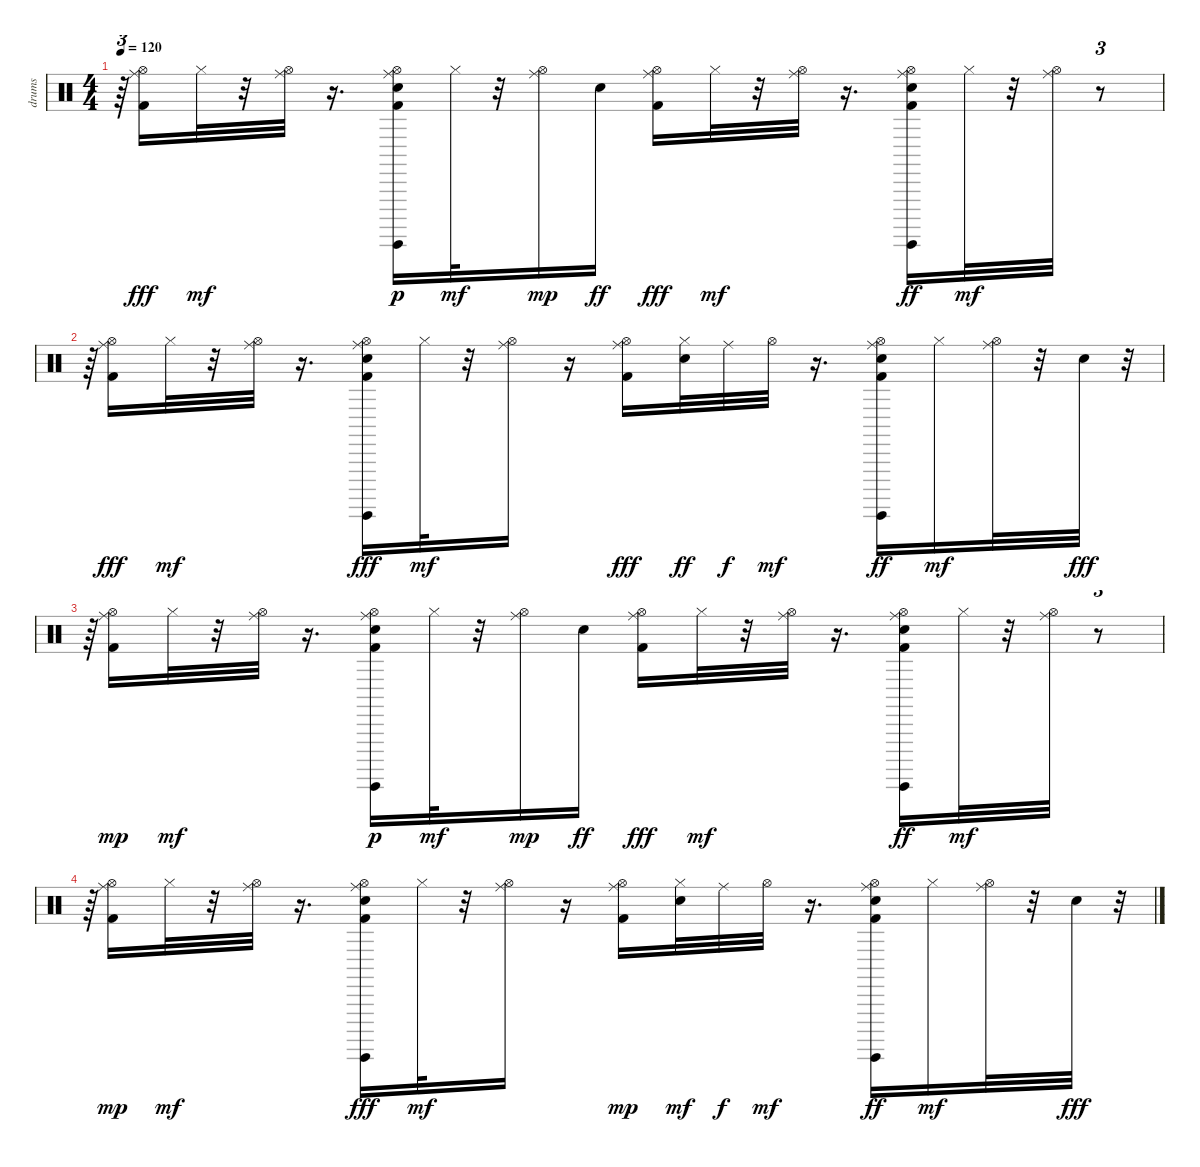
\track ("drums                               " "drums     ") {instrument percussion}
\staff {score}
\articulation defaults
\ts (4 4)
\tempo 120
\clef neutral
\ks c
r.64{tu (3 2) dy mf} ("Hi-Hat (open)" "Kick (hit) 2" "Ride (middle)").16{dy fff} "Hi-Hat (closed)".32{dy mf} r.32 ("Hi-Hat (open)" "Ride (middle)").32 r.16{d} ("Guiro (hit)" "Electric Snare (hit)" "Kick (hit) 2" "Hi-Hat (open)" "Ride (middle)").16{dy p} "Hi-Hat (closed)".32{dy mf} r.32 ("Hi-Hat (open)" "Ride (middle)").16{dy mp} "Electric Snare (hit)".16{dy ff} ("Ride (middle)" "Hi-Hat (open)" "Kick (hit) 2").16{dy fff} "Hi-Hat (closed)".32{dy mf} r.32 ("Hi-Hat (open)" "Ride (middle)").32 r.16{d} ("Guiro (hit)" "Hi-Hat (open)" "Kick (hit) 2" "Electric Snare (hit)" "Ride (middle)").16{dy ff} "Hi-Hat (closed)".32{dy mf} r.32 ("Hi-Hat (open)" "Ride (middle)").32 r.8{tu (3 2)} |
r.64{tu (3 2)} ("Hi-Hat (open)" "Kick (hit) 2" "Ride (middle)").16{dy fff} "Hi-Hat (closed)".32{dy mf} r.32 ("Ride (middle)" "Hi-Hat (open)").32 r.16{d} ("Electric Snare (hit)" "Hi-Hat (open)" "Kick (hit) 2" "Guiro (hit)" "Ride (middle)").16{dy fff} "Hi-Hat (closed)".32{dy mf} r.32 ("Ride (middle)" "Hi-Hat (open)").16 r.16 ("Ride (middle)" "Hi-Hat (open)" "Kick (hit) 2").16{dy fff} ("Hi-Hat (closed)" "Electric Snare (hit)").32{dy ff} "Ride (middle)".32{dy f} "Hi-Hat (open)".32{dy mf} r.16{d} ("Ride (middle)" "Kick (hit) 2" "Hi-Hat (open)" "Electric Snare (hit)" "Guiro (hit)").16{dy ff} "Hi-Hat (closed)".16{dy mf} ("Ride (middle)" "Hi-Hat (open)").32 r.32 "Electric Snare (hit)".32{dy fff} r.32{tu (3 2)} |
r.64{tu (3 2)} ("Kick (hit) 2" "Hi-Hat (open)" "Ride (middle)").16{dy mp} "Hi-Hat (closed)".32{dy mf} r.32 ("Hi-Hat (open)" "Ride (middle)").32 r.16{d} ("Guiro (hit)" "Electric Snare (hit)" "Kick (hit) 2" "Hi-Hat (open)" "Ride (middle)").16{dy p} "Hi-Hat (closed)".32{dy mf} r.32 ("Hi-Hat (open)" "Ride (middle)").16{dy mp} "Electric Snare (hit)".16{dy ff} ("Ride (middle)" "Hi-Hat (open)" "Kick (hit) 2").16{dy fff} "Hi-Hat (closed)".32{dy mf} r.32 ("Hi-Hat (open)" "Ride (middle)").32 r.16{d} ("Kick (hit) 2" "Guiro (hit)" "Hi-Hat (open)" "Electric Snare (hit)" "Ride (middle)").16{dy ff} "Hi-Hat (closed)".32{dy mf} r.32 ("Hi-Hat (open)" "Ride (middle)").32 r.8{tu (3 2)} |
r.64{tu (3 2)} ("Kick (hit) 2" "Hi-Hat (open)" "Ride (middle)").16{dy mp} "Hi-Hat (closed)".32{dy mf} r.32 ("Ride (middle)" "Hi-Hat (open)").32 r.16{d} ("Electric Snare (hit)" "Hi-Hat (open)" "Guiro (hit)" "Kick (hit) 2" "Ride (middle)").16{dy fff} "Hi-Hat (closed)".32{dy mf} r.32 ("Ride (middle)" "Hi-Hat (open)").16 r.16 ("Ride (middle)" "Kick (hit) 2" "Hi-Hat (open)").16{dy mp} ("Electric Snare (hit)" "Hi-Hat (closed)").32{dy mf} "Ride (middle)".32{dy f} "Hi-Hat (open)".32{dy mf} r.16{d} ("Ride (middle)" "Hi-Hat (open)" "Kick (hit) 2" "Guiro (hit)" "Electric Snare (hit)").16{dy ff} "Hi-Hat (closed)".16{dy mf} ("Ride (middle)" "Hi-Hat (open)").32 r.32 "Electric Snare (hit)".32{dy fff} r.32{tu (3 2)}
